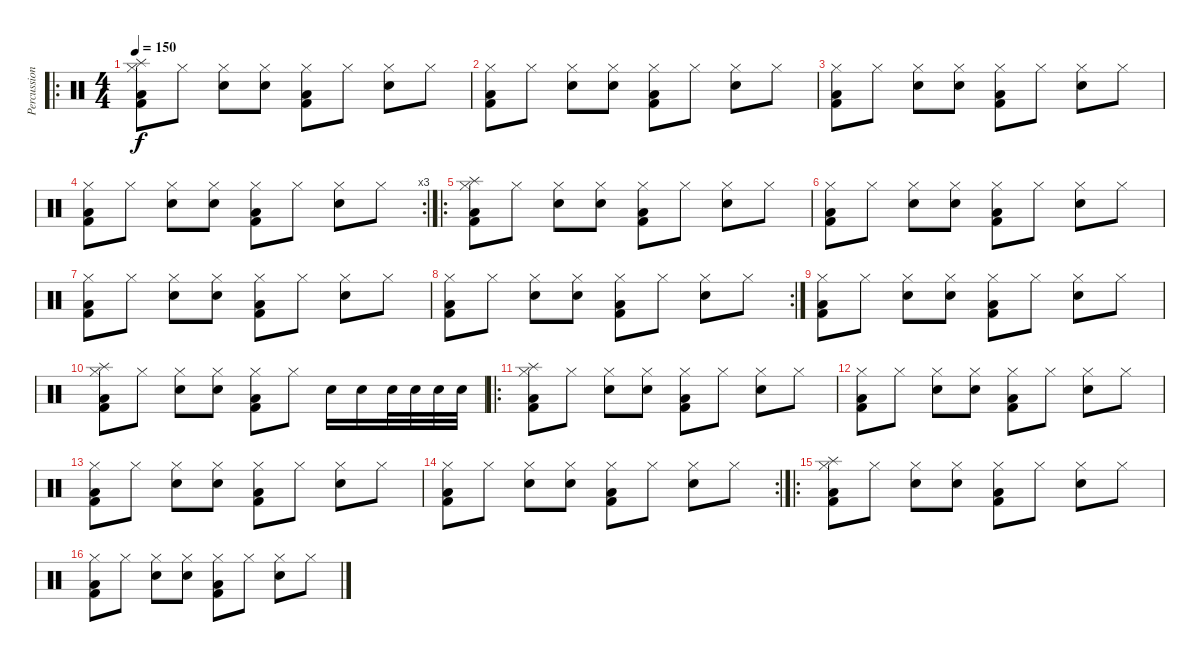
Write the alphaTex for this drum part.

\track ("Percussions" "Percussion") {instrument percussion}
\staff {score}
\articulation defaults
\ro
\ts (4 4)
\tempo 150
\clef neutral
\ks c
("Splash (hit)" "Low Floor Tom (hit)" "Kick (hit) 2" "Hi-Hat (closed)").8{dy f} "Hi-Hat (closed)".8 ("Electric Snare (hit)" "Hi-Hat (closed)").8 ("Electric Snare (hit)" "Hi-Hat (closed)").8 ("Low Floor Tom (hit)" "Kick (hit) 2" "Hi-Hat (closed)").8 "Hi-Hat (closed)".8 ("Electric Snare (hit)" "Hi-Hat (closed)").8 "Hi-Hat (closed)".8 |
("Low Floor Tom (hit)" "Kick (hit) 2" "Hi-Hat (closed)").8 "Hi-Hat (closed)".8 ("Electric Snare (hit)" "Hi-Hat (closed)").8 ("Electric Snare (hit)" "Hi-Hat (closed)").8 ("Low Floor Tom (hit)" "Kick (hit) 2" "Hi-Hat (closed)").8 "Hi-Hat (closed)".8 ("Electric Snare (hit)" "Hi-Hat (closed)").8 "Hi-Hat (closed)".8 |
("Low Floor Tom (hit)" "Kick (hit) 2" "Hi-Hat (closed)").8 "Hi-Hat (closed)".8 ("Electric Snare (hit)" "Hi-Hat (closed)").8 ("Electric Snare (hit)" "Hi-Hat (closed)").8 ("Low Floor Tom (hit)" "Kick (hit) 2" "Hi-Hat (closed)").8 "Hi-Hat (closed)".8 ("Electric Snare (hit)" "Hi-Hat (closed)").8 "Hi-Hat (closed)".8 |
\rc 3
("Low Floor Tom (hit)" "Kick (hit) 2" "Hi-Hat (closed)").8 "Hi-Hat (closed)".8 ("Electric Snare (hit)" "Hi-Hat (closed)").8 ("Electric Snare (hit)" "Hi-Hat (closed)").8 ("Low Floor Tom (hit)" "Kick (hit) 2" "Hi-Hat (closed)").8 "Hi-Hat (closed)".8 ("Electric Snare (hit)" "Hi-Hat (closed)").8 "Hi-Hat (closed)".8 |
\ro
("Splash (hit)" "Low Floor Tom (hit)" "Kick (hit) 2" "Hi-Hat (closed)").8 "Hi-Hat (closed)".8 ("Electric Snare (hit)" "Hi-Hat (closed)").8 ("Electric Snare (hit)" "Hi-Hat (closed)").8 ("Low Floor Tom (hit)" "Kick (hit) 2" "Hi-Hat (closed)").8 "Hi-Hat (closed)".8 ("Electric Snare (hit)" "Hi-Hat (closed)").8 "Hi-Hat (closed)".8 |
("Low Floor Tom (hit)" "Kick (hit) 2" "Hi-Hat (closed)").8 "Hi-Hat (closed)".8 ("Electric Snare (hit)" "Hi-Hat (closed)").8 ("Electric Snare (hit)" "Hi-Hat (closed)").8 ("Low Floor Tom (hit)" "Kick (hit) 2" "Hi-Hat (closed)").8 "Hi-Hat (closed)".8 ("Electric Snare (hit)" "Hi-Hat (closed)").8 "Hi-Hat (closed)".8 |
("Low Floor Tom (hit)" "Kick (hit) 2" "Hi-Hat (closed)").8 "Hi-Hat (closed)".8 ("Electric Snare (hit)" "Hi-Hat (closed)").8 ("Electric Snare (hit)" "Hi-Hat (closed)").8 ("Low Floor Tom (hit)" "Kick (hit) 2" "Hi-Hat (closed)").8 "Hi-Hat (closed)".8 ("Electric Snare (hit)" "Hi-Hat (closed)").8 "Hi-Hat (closed)".8 |
\rc 2
("Low Floor Tom (hit)" "Kick (hit) 2" "Hi-Hat (closed)").8 "Hi-Hat (closed)".8 ("Electric Snare (hit)" "Hi-Hat (closed)").8 ("Electric Snare (hit)" "Hi-Hat (closed)").8 ("Low Floor Tom (hit)" "Kick (hit) 2" "Hi-Hat (closed)").8 "Hi-Hat (closed)".8 ("Electric Snare (hit)" "Hi-Hat (closed)").8 "Hi-Hat (closed)".8 |
("Low Floor Tom (hit)" "Kick (hit) 2" "Hi-Hat (closed)").8 "Hi-Hat (closed)".8 ("Electric Snare (hit)" "Hi-Hat (closed)").8 ("Electric Snare (hit)" "Hi-Hat (closed)").8 ("Low Floor Tom (hit)" "Kick (hit) 2" "Hi-Hat (closed)").8 "Hi-Hat (closed)".8 ("Electric Snare (hit)" "Hi-Hat (closed)").8 "Hi-Hat (closed)".8 |
("Splash (hit)" "Low Floor Tom (hit)" "Kick (hit) 2" "Hi-Hat (closed)").8 "Hi-Hat (closed)".8 ("Electric Snare (hit)" "Hi-Hat (closed)").8 ("Electric Snare (hit)" "Hi-Hat (closed)").8 ("Low Floor Tom (hit)" "Kick (hit) 2" "Hi-Hat (closed)").8 "Hi-Hat (closed)".8 "Electric Snare (hit)".16 "Electric Snare (hit)".16 "Electric Snare (hit)".32 "Electric Snare (hit)".32 "Electric Snare (hit)".32 "Electric Snare (hit)".32 |
\ro
("Splash (hit)" "Low Floor Tom (hit)" "Kick (hit) 2" "Hi-Hat (closed)").8 "Hi-Hat (closed)".8 ("Electric Snare (hit)" "Hi-Hat (closed)").8 ("Electric Snare (hit)" "Hi-Hat (closed)").8 ("Low Floor Tom (hit)" "Kick (hit) 2" "Hi-Hat (closed)").8 "Hi-Hat (closed)".8 ("Electric Snare (hit)" "Hi-Hat (closed)").8 "Hi-Hat (closed)".8 |
("Low Floor Tom (hit)" "Kick (hit) 2" "Hi-Hat (closed)").8 "Hi-Hat (closed)".8 ("Electric Snare (hit)" "Hi-Hat (closed)").8 ("Electric Snare (hit)" "Hi-Hat (closed)").8 ("Low Floor Tom (hit)" "Kick (hit) 2" "Hi-Hat (closed)").8 "Hi-Hat (closed)".8 ("Electric Snare (hit)" "Hi-Hat (closed)").8 "Hi-Hat (closed)".8 |
("Low Floor Tom (hit)" "Kick (hit) 2" "Hi-Hat (closed)").8 "Hi-Hat (closed)".8 ("Electric Snare (hit)" "Hi-Hat (closed)").8 ("Electric Snare (hit)" "Hi-Hat (closed)").8 ("Low Floor Tom (hit)" "Kick (hit) 2" "Hi-Hat (closed)").8 "Hi-Hat (closed)".8 ("Electric Snare (hit)" "Hi-Hat (closed)").8 "Hi-Hat (closed)".8 |
\rc 2
("Low Floor Tom (hit)" "Kick (hit) 2" "Hi-Hat (closed)").8 "Hi-Hat (closed)".8 ("Electric Snare (hit)" "Hi-Hat (closed)").8 ("Electric Snare (hit)" "Hi-Hat (closed)").8 ("Low Floor Tom (hit)" "Kick (hit) 2" "Hi-Hat (closed)").8 "Hi-Hat (closed)".8 ("Electric Snare (hit)" "Hi-Hat (closed)").8 "Hi-Hat (closed)".8 |
\ro
("Splash (hit)" "Low Floor Tom (hit)" "Kick (hit) 2" "Hi-Hat (closed)").8 "Hi-Hat (closed)".8 ("Electric Snare (hit)" "Hi-Hat (closed)").8 ("Electric Snare (hit)" "Hi-Hat (closed)").8 ("Low Floor Tom (hit)" "Kick (hit) 2" "Hi-Hat (closed)").8 "Hi-Hat (closed)".8 ("Electric Snare (hit)" "Hi-Hat (closed)").8 "Hi-Hat (closed)".8 |
("Low Floor Tom (hit)" "Kick (hit) 2" "Hi-Hat (closed)").8 "Hi-Hat (closed)".8 ("Electric Snare (hit)" "Hi-Hat (closed)").8 ("Electric Snare (hit)" "Hi-Hat (closed)").8 ("Low Floor Tom (hit)" "Kick (hit) 2" "Hi-Hat (closed)").8 "Hi-Hat (closed)".8 ("Electric Snare (hit)" "Hi-Hat (closed)").8 "Hi-Hat (closed)".8
